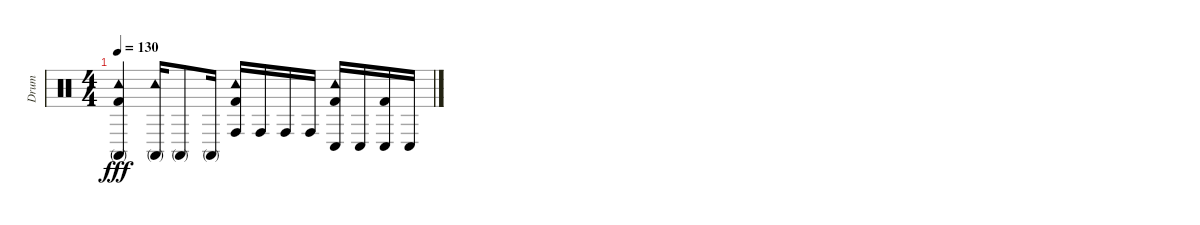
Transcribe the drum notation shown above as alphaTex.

\track ("Drum" "Drum") {instrument percussion}
\staff {score}
\articulation defaults
\ts (4 4)
\tempo 130
\clef neutral
\ks c
("Tambourine (hit)" "Conga high (mute)" "Kick (hit) 2").4{dy fff} ("Tambourine (hit)" "Conga high (mute)").16 "Conga high (mute)".8 "Conga high (mute)".16 ("Tambourine (hit)" "Conga high (hit)" "Kick (hit) 2").16 "Conga high (hit)".16 "Conga high (hit)".16 "Conga high (hit)".16 ("Tambourine (hit)" "Conga low (hit)" "Kick (hit) 2").16 "Conga low (hit)".16 ("Conga low (hit)" "Kick (hit) 2").16 "Conga low (hit)".16
